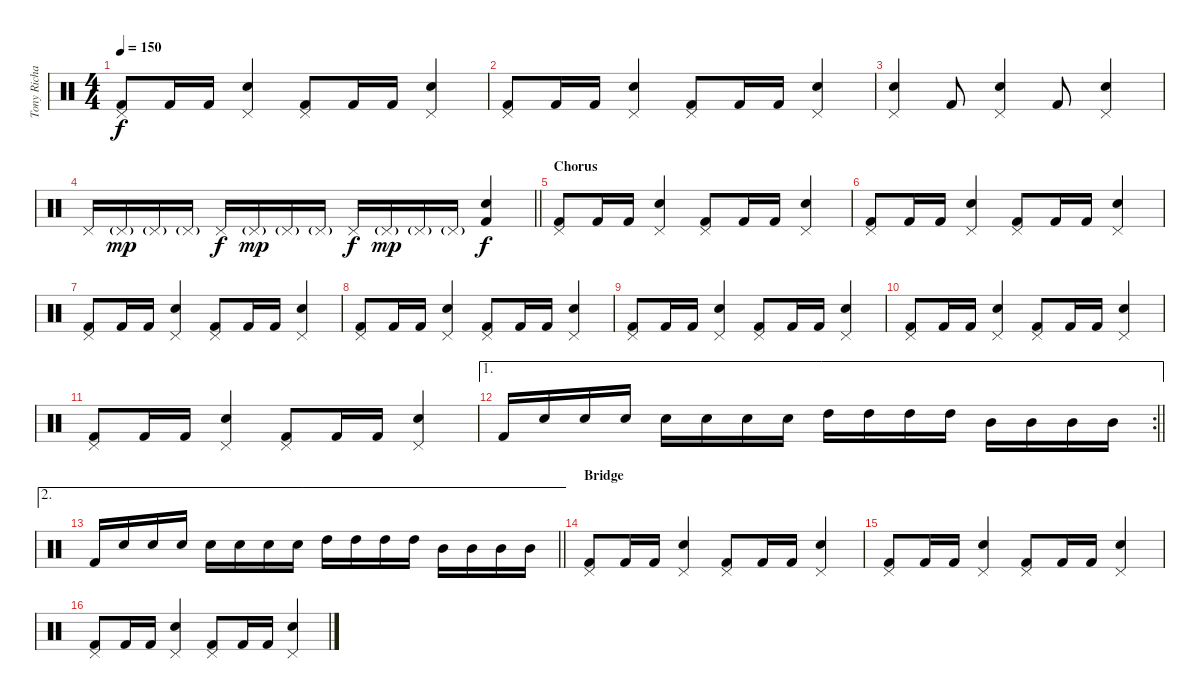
\track ("Tony Richards (drums)" "Tony Richa") {instrument percussion}
\staff {score}
\articulation defaults
\ts (4 4)
\tempo 150
\clef neutral
\ks c
("Pedal Hi-Hat (hit)" "Kick (hit) 2").8{dy f} "Kick (hit) 2".16 "Kick (hit) 2".16 ("Pedal Hi-Hat (hit)" "Snare (hit) 2").4 ("Pedal Hi-Hat (hit)" "Kick (hit) 2").8 "Kick (hit) 2".16 "Kick (hit) 2".16 ("Pedal Hi-Hat (hit)" "Snare (hit) 2").4 |
("Pedal Hi-Hat (hit)" "Kick (hit) 2").8 "Kick (hit) 2".16 "Kick (hit) 2".16 ("Pedal Hi-Hat (hit)" "Snare (hit) 2").4 ("Pedal Hi-Hat (hit)" "Kick (hit) 2").8 "Kick (hit) 2".16 "Kick (hit) 2".16 ("Pedal Hi-Hat (hit)" "Snare (hit) 2").4 |
("Pedal Hi-Hat (hit)" "Snare (hit) 2").4 "Kick (hit) 2".8 ("Pedal Hi-Hat (hit)" "Snare (hit) 2").4 "Kick (hit) 2".8 ("Pedal Hi-Hat (hit)" "Snare (hit) 2").4 |
\barLineRight lightlight "Pedal Hi-Hat (hit)".16 "Pedal Hi-Hat (hit)"{g}.16{dy mp} "Pedal Hi-Hat (hit)"{g}.16 "Pedal Hi-Hat (hit)"{g}.16 "Pedal Hi-Hat (hit)".16{dy f} "Pedal Hi-Hat (hit)"{g}.16{dy mp} "Pedal Hi-Hat (hit)"{g}.16 "Pedal Hi-Hat (hit)"{g}.16 "Pedal Hi-Hat (hit)".16{dy f} "Pedal Hi-Hat (hit)"{g}.16{dy mp} "Pedal Hi-Hat (hit)"{g}.16 "Pedal Hi-Hat (hit)"{g}.16
("Snare (hit) 2" "Kick (hit) 2").4{dy f} |
\section ("" "Chorus")
("Pedal Hi-Hat (hit)" "Kick (hit) 2").8 "Kick (hit) 2".16 "Kick (hit) 2".16 ("Pedal Hi-Hat (hit)" "Snare (hit) 2").4 ("Pedal Hi-Hat (hit)" "Kick (hit) 2").8 "Kick (hit) 2".16 "Kick (hit) 2".16 ("Pedal Hi-Hat (hit)" "Snare (hit) 2").4 |
("Pedal Hi-Hat (hit)" "Kick (hit) 2").8 "Kick (hit) 2".16 "Kick (hit) 2".16 ("Pedal Hi-Hat (hit)" "Snare (hit) 2").4 ("Pedal Hi-Hat (hit)" "Kick (hit) 2").8 "Kick (hit) 2".16 "Kick (hit) 2".16 ("Pedal Hi-Hat (hit)" "Snare (hit) 2").4 |
("Pedal Hi-Hat (hit)" "Kick (hit) 2").8 "Kick (hit) 2".16 "Kick (hit) 2".16 ("Pedal Hi-Hat (hit)" "Snare (hit) 2").4 ("Pedal Hi-Hat (hit)" "Kick (hit) 2").8 "Kick (hit) 2".16 "Kick (hit) 2".16 ("Pedal Hi-Hat (hit)" "Snare (hit) 2").4 |
("Pedal Hi-Hat (hit)" "Kick (hit) 2").8 "Kick (hit) 2".16 "Kick (hit) 2".16 ("Pedal Hi-Hat (hit)" "Snare (hit) 2").4 ("Pedal Hi-Hat (hit)" "Kick (hit) 2").8 "Kick (hit) 2".16 "Kick (hit) 2".16 ("Pedal Hi-Hat (hit)" "Snare (hit) 2").4 |
("Pedal Hi-Hat (hit)" "Kick (hit) 2").8 "Kick (hit) 2".16 "Kick (hit) 2".16 ("Pedal Hi-Hat (hit)" "Snare (hit) 2").4 ("Pedal Hi-Hat (hit)" "Kick (hit) 2").8 "Kick (hit) 2".16 "Kick (hit) 2".16 ("Pedal Hi-Hat (hit)" "Snare (hit) 2").4 |
("Pedal Hi-Hat (hit)" "Kick (hit) 2").8 "Kick (hit) 2".16 "Kick (hit) 2".16 ("Pedal Hi-Hat (hit)" "Snare (hit) 2").4 ("Pedal Hi-Hat (hit)" "Kick (hit) 2").8 "Kick (hit) 2".16 "Kick (hit) 2".16 ("Pedal Hi-Hat (hit)" "Snare (hit) 2").4 |
("Pedal Hi-Hat (hit)" "Kick (hit) 2").8 "Kick (hit) 2".16 "Kick (hit) 2".16 ("Pedal Hi-Hat (hit)" "Snare (hit) 2").4 ("Pedal Hi-Hat (hit)" "Kick (hit) 2").8 "Kick (hit) 2".16 "Kick (hit) 2".16 ("Pedal Hi-Hat (hit)" "Snare (hit) 2").4 |
\ae 1
\rc 2
\barLineRight lightlight "Kick (hit) 2".16 "Snare (hit) 2".16 "Snare (hit) 2".16 "Snare (hit) 2".16 "Snare (hit) 2".16 "Snare (hit) 2".16 "Snare (hit) 2".16 "Snare (hit) 2".16 "High Tom (hit)".16 "High Tom (hit)".16 "High Tom (hit)".16 "High Tom (hit)".16 "Mid Tom (hit)".16 "Mid Tom (hit)".16 "Mid Tom (hit)".16 "Mid Tom (hit)".16
|
\ae 2
\barLineRight lightlight "Kick (hit) 2".16 "Snare (hit) 2".16 "Snare (hit) 2".16 "Snare (hit) 2".16 "Snare (hit) 2".16 "Snare (hit) 2".16 "Snare (hit) 2".16 "Snare (hit) 2".16 "High Tom (hit)".16 "High Tom (hit)".16 "High Tom (hit)".16 "High Tom (hit)".16 "Mid Tom (hit)".16 "Mid Tom (hit)".16 "Mid Tom (hit)".16 "Mid Tom (hit)".16
|
\section ("" "Bridge")
("Pedal Hi-Hat (hit)" "Kick (hit) 2").8 "Kick (hit) 2".16 "Kick (hit) 2".16 ("Pedal Hi-Hat (hit)" "Snare (hit) 2").4 ("Pedal Hi-Hat (hit)" "Kick (hit) 2").8 "Kick (hit) 2".16 "Kick (hit) 2".16 ("Pedal Hi-Hat (hit)" "Snare (hit) 2").4 |
("Pedal Hi-Hat (hit)" "Kick (hit) 2").8 "Kick (hit) 2".16 "Kick (hit) 2".16 ("Pedal Hi-Hat (hit)" "Snare (hit) 2").4 ("Pedal Hi-Hat (hit)" "Kick (hit) 2").8 "Kick (hit) 2".16 "Kick (hit) 2".16 ("Pedal Hi-Hat (hit)" "Snare (hit) 2").4 |
("Pedal Hi-Hat (hit)" "Kick (hit) 2").8 "Kick (hit) 2".16 "Kick (hit) 2".16 ("Pedal Hi-Hat (hit)" "Snare (hit) 2").4 ("Pedal Hi-Hat (hit)" "Kick (hit) 2").8 "Kick (hit) 2".16 "Kick (hit) 2".16 ("Pedal Hi-Hat (hit)" "Snare (hit) 2").4
